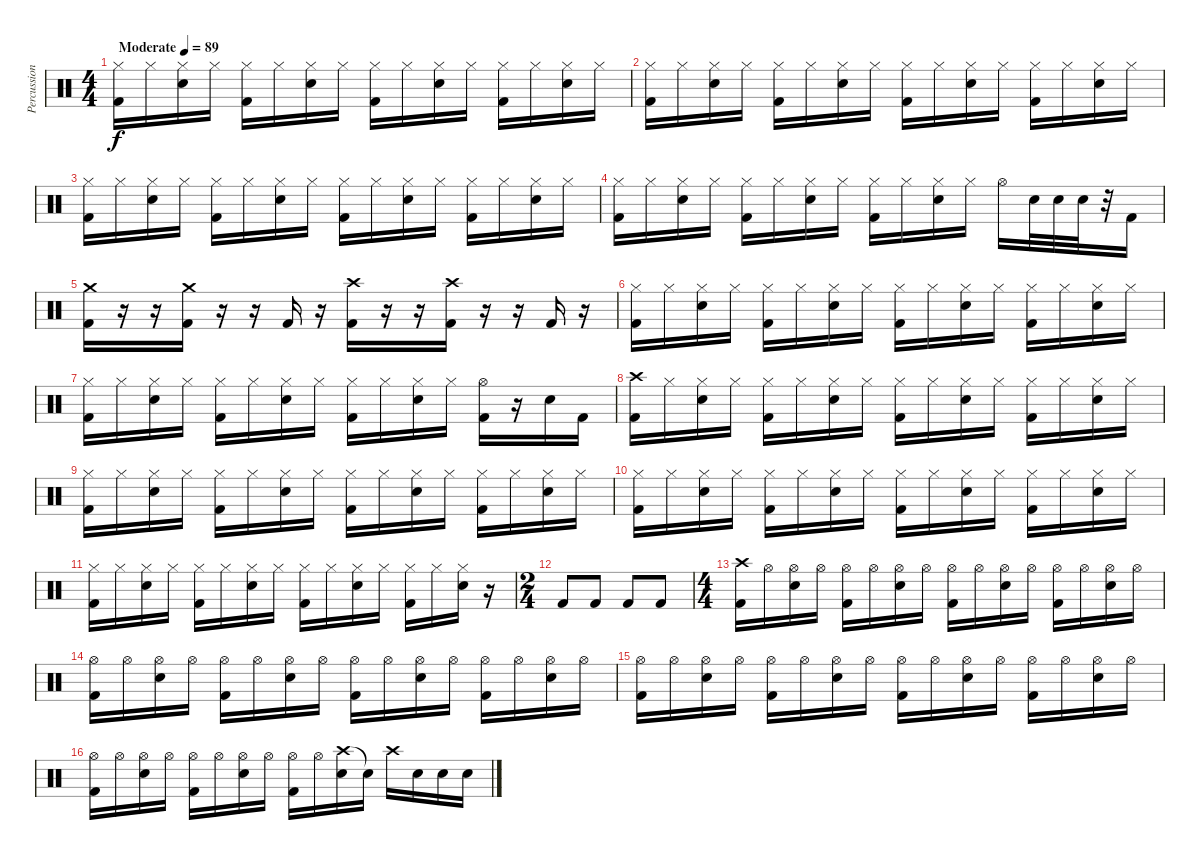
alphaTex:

\track ("Percussion" "Percussion") {instrument percussion}
\staff {score}
\articulation defaults
\ts (4 4)
\tempo (89 "Moderate")
\clef neutral
\ks c
("Hi-Hat (closed)" "Kick (hit) 2").16{dy f} "Hi-Hat (closed)".16 ("Hi-Hat (closed)" "Snare (hit) 2").16 "Hi-Hat (closed)".16 ("Hi-Hat (closed)" "Kick (hit) 2").16 "Hi-Hat (closed)".16 ("Hi-Hat (closed)" "Snare (hit) 2").16 "Hi-Hat (closed)".16 ("Hi-Hat (closed)" "Kick (hit) 2").16 "Hi-Hat (closed)".16 ("Hi-Hat (closed)" "Snare (hit) 2").16 "Hi-Hat (closed)".16 ("Hi-Hat (closed)" "Kick (hit) 2").16 "Hi-Hat (closed)".16 ("Hi-Hat (closed)" "Snare (hit) 2").16 "Hi-Hat (closed)".16 |
("Hi-Hat (closed)" "Kick (hit) 2").16 "Hi-Hat (closed)".16 ("Hi-Hat (closed)" "Snare (hit) 2").16 "Hi-Hat (closed)".16 ("Hi-Hat (closed)" "Kick (hit) 2").16 "Hi-Hat (closed)".16 ("Hi-Hat (closed)" "Snare (hit) 2").16 "Hi-Hat (closed)".16 ("Hi-Hat (closed)" "Kick (hit) 2").16 "Hi-Hat (closed)".16 ("Hi-Hat (closed)" "Snare (hit) 2").16 "Hi-Hat (closed)".16 ("Hi-Hat (closed)" "Kick (hit) 2").16 "Hi-Hat (closed)".16 ("Hi-Hat (closed)" "Snare (hit) 2").16 "Hi-Hat (closed)".16 |
("Hi-Hat (closed)" "Kick (hit) 2").16 "Hi-Hat (closed)".16 ("Hi-Hat (closed)" "Snare (hit) 2").16 "Hi-Hat (closed)".16 ("Hi-Hat (closed)" "Kick (hit) 2").16 "Hi-Hat (closed)".16 ("Hi-Hat (closed)" "Snare (hit) 2").16 "Hi-Hat (closed)".16 ("Hi-Hat (closed)" "Kick (hit) 2").16 "Hi-Hat (closed)".16 ("Hi-Hat (closed)" "Snare (hit) 2").16 "Hi-Hat (closed)".16 ("Hi-Hat (closed)" "Kick (hit) 2").16 "Hi-Hat (closed)".16 ("Hi-Hat (closed)" "Snare (hit) 2").16 "Hi-Hat (closed)".16 |
("Hi-Hat (closed)" "Kick (hit) 2").16 "Hi-Hat (closed)".16 ("Hi-Hat (closed)" "Snare (hit) 2").16 "Hi-Hat (closed)".16 ("Hi-Hat (closed)" "Kick (hit) 2").16 "Hi-Hat (closed)".16 ("Hi-Hat (closed)" "Snare (hit) 2").16 "Hi-Hat (closed)".16 ("Hi-Hat (closed)" "Kick (hit) 2").16 "Hi-Hat (closed)".16 ("Hi-Hat (closed)" "Snare (hit) 2").16 "Hi-Hat (closed)".16 "Hi-Hat (open)".16 "Snare (hit) 2".32 "Snare (hit) 2".32 "Snare (hit) 2".32 r.32 "Kick (hit) 2".16 |
("Crash medium (hit)" "Kick (hit) 2").16 r.16 r.16 ("Crash medium (hit)" "Kick (hit) 2").16 r.16 r.16 "Kick (hit) 2".16 r.16 ("Crash high (hit)" "Kick (hit) 2").16 r.16 r.16 ("Crash high (hit)" "Kick (hit) 2").16 r.16 r.16 "Kick (hit) 2".16 r.16 |
("Hi-Hat (closed)" "Kick (hit) 2").16 "Hi-Hat (closed)".16 ("Hi-Hat (closed)" "Snare (hit) 2").16 "Hi-Hat (closed)".16 ("Hi-Hat (closed)" "Kick (hit) 2").16 "Hi-Hat (closed)".16 ("Hi-Hat (closed)" "Snare (hit) 2").16 "Hi-Hat (closed)".16 ("Hi-Hat (closed)" "Kick (hit) 2").16 "Hi-Hat (closed)".16 ("Hi-Hat (closed)" "Snare (hit) 2").16 "Hi-Hat (closed)".16 ("Hi-Hat (closed)" "Kick (hit) 2").16 "Hi-Hat (closed)".16 ("Hi-Hat (closed)" "Snare (hit) 2").16 "Hi-Hat (closed)".16 |
("Hi-Hat (closed)" "Kick (hit) 2").16 "Hi-Hat (closed)".16 ("Hi-Hat (closed)" "Snare (hit) 2").16 "Hi-Hat (closed)".16 ("Hi-Hat (closed)" "Kick (hit) 2").16 "Hi-Hat (closed)".16 ("Hi-Hat (closed)" "Snare (hit) 2").16 "Hi-Hat (closed)".16 ("Hi-Hat (closed)" "Kick (hit) 2").16 "Hi-Hat (closed)".16 ("Hi-Hat (closed)" "Snare (hit) 2").16 "Hi-Hat (closed)".16 ("Hi-Hat (open)" "Kick (hit) 2").16 r.16 "Snare (hit) 2".16 "Kick (hit) 2".16 |
("Crash high (hit)" "Kick (hit) 2").16 "Hi-Hat (closed)".16 ("Hi-Hat (closed)" "Snare (hit) 2").16 "Hi-Hat (closed)".16 ("Hi-Hat (closed)" "Kick (hit) 2").16 "Hi-Hat (closed)".16 ("Hi-Hat (closed)" "Snare (hit) 2").16 "Hi-Hat (closed)".16 ("Hi-Hat (closed)" "Kick (hit) 2").16 "Hi-Hat (closed)".16 ("Hi-Hat (closed)" "Snare (hit) 2").16 "Hi-Hat (closed)".16 ("Hi-Hat (closed)" "Kick (hit) 2").16 "Hi-Hat (closed)".16 ("Hi-Hat (closed)" "Snare (hit) 2").16 "Hi-Hat (closed)".16 |
("Hi-Hat (closed)" "Kick (hit) 2").16 "Hi-Hat (closed)".16 ("Hi-Hat (closed)" "Snare (hit) 2").16 "Hi-Hat (closed)".16 ("Hi-Hat (closed)" "Kick (hit) 2").16 "Hi-Hat (closed)".16 ("Hi-Hat (closed)" "Snare (hit) 2").16 "Hi-Hat (closed)".16 ("Hi-Hat (closed)" "Kick (hit) 2").16 "Hi-Hat (closed)".16 ("Hi-Hat (closed)" "Snare (hit) 2").16 "Hi-Hat (closed)".16 ("Hi-Hat (closed)" "Kick (hit) 2").16 "Hi-Hat (closed)".16 ("Hi-Hat (closed)" "Snare (hit) 2").16 "Hi-Hat (closed)".16 |
("Hi-Hat (closed)" "Kick (hit) 2").16 "Hi-Hat (closed)".16 ("Hi-Hat (closed)" "Snare (hit) 2").16 "Hi-Hat (closed)".16 ("Hi-Hat (closed)" "Kick (hit) 2").16 "Hi-Hat (closed)".16 ("Hi-Hat (closed)" "Snare (hit) 2").16 "Hi-Hat (closed)".16 ("Hi-Hat (closed)" "Kick (hit) 2").16 "Hi-Hat (closed)".16 ("Hi-Hat (closed)" "Snare (hit) 2").16 "Hi-Hat (closed)".16 ("Hi-Hat (closed)" "Kick (hit) 2").16 "Hi-Hat (closed)".16 ("Hi-Hat (closed)" "Snare (hit) 2").16 "Hi-Hat (closed)".16 |
("Hi-Hat (closed)" "Kick (hit) 2").16 "Hi-Hat (closed)".16 ("Hi-Hat (closed)" "Snare (hit) 2").16 "Hi-Hat (closed)".16 ("Hi-Hat (closed)" "Kick (hit) 2").16 "Hi-Hat (closed)".16 ("Hi-Hat (closed)" "Snare (hit) 2").16 "Hi-Hat (closed)".16 ("Hi-Hat (closed)" "Kick (hit) 2").16 "Hi-Hat (closed)".16 ("Hi-Hat (closed)" "Snare (hit) 2").16 "Hi-Hat (closed)".16 ("Hi-Hat (closed)" "Kick (hit) 2").16 "Hi-Hat (closed)".16 ("Hi-Hat (closed)" "Snare (hit) 2").16 r.16 |
\ts (2 4)
"Kick (hit) 2".8 "Kick (hit) 2".8 "Kick (hit) 2".8 "Kick (hit) 2".8 |
\ts (4 4)
("Crash high (hit)" "Kick (hit) 2").16 "Hi-Hat (open)".16 ("Hi-Hat (open)" "Snare (hit) 2").16 "Hi-Hat (open)".16 ("Hi-Hat (open)" "Kick (hit) 2").16 "Hi-Hat (open)".16 ("Hi-Hat (open)" "Snare (hit) 2").16 "Hi-Hat (open)".16 ("Hi-Hat (open)" "Kick (hit) 2").16 "Hi-Hat (open)".16 ("Hi-Hat (open)" "Snare (hit) 2").16 "Hi-Hat (open)".16 ("Hi-Hat (open)" "Kick (hit) 2").16 "Hi-Hat (open)".16 ("Hi-Hat (open)" "Snare (hit) 2").16 "Hi-Hat (open)".16 |
("Hi-Hat (open)" "Kick (hit) 2").16 "Hi-Hat (open)".16 ("Hi-Hat (open)" "Snare (hit) 2").16 "Hi-Hat (open)".16 ("Hi-Hat (open)" "Kick (hit) 2").16 "Hi-Hat (open)".16 ("Hi-Hat (open)" "Snare (hit) 2").16 "Hi-Hat (open)".16 ("Hi-Hat (open)" "Kick (hit) 2").16 "Hi-Hat (open)".16 ("Hi-Hat (open)" "Snare (hit) 2").16 "Hi-Hat (open)".16 ("Hi-Hat (open)" "Kick (hit) 2").16 "Hi-Hat (open)".16 ("Hi-Hat (open)" "Snare (hit) 2").16 "Hi-Hat (open)".16 |
("Hi-Hat (open)" "Kick (hit) 2").16 "Hi-Hat (open)".16 ("Hi-Hat (open)" "Snare (hit) 2").16 "Hi-Hat (open)".16 ("Hi-Hat (open)" "Kick (hit) 2").16 "Hi-Hat (open)".16 ("Hi-Hat (open)" "Snare (hit) 2").16 "Hi-Hat (open)".16 ("Hi-Hat (open)" "Kick (hit) 2").16 "Hi-Hat (open)".16 ("Hi-Hat (open)" "Snare (hit) 2").16 "Hi-Hat (open)".16 ("Hi-Hat (open)" "Kick (hit) 2").16 "Hi-Hat (open)".16 ("Hi-Hat (open)" "Snare (hit) 2").16 "Hi-Hat (open)".16 |
("Hi-Hat (open)" "Kick (hit) 2").16 "Hi-Hat (open)".16 ("Hi-Hat (open)" "Snare (hit) 2").16 "Hi-Hat (open)".16 ("Hi-Hat (open)" "Kick (hit) 2").16 "Hi-Hat (open)".16 ("Hi-Hat (open)" "Snare (hit) 2").16 "Hi-Hat (open)".16 ("Hi-Hat (open)" "Kick (hit) 2").16 "Hi-Hat (open)".16 ("Crash high (hit)" "Snare (hit) 2").16 "Snare (hit)"{t}.16 "Crash high (hit)".16 "Snare (hit) 2".16 "Snare (hit) 2".16 "Snare (hit) 2".16
